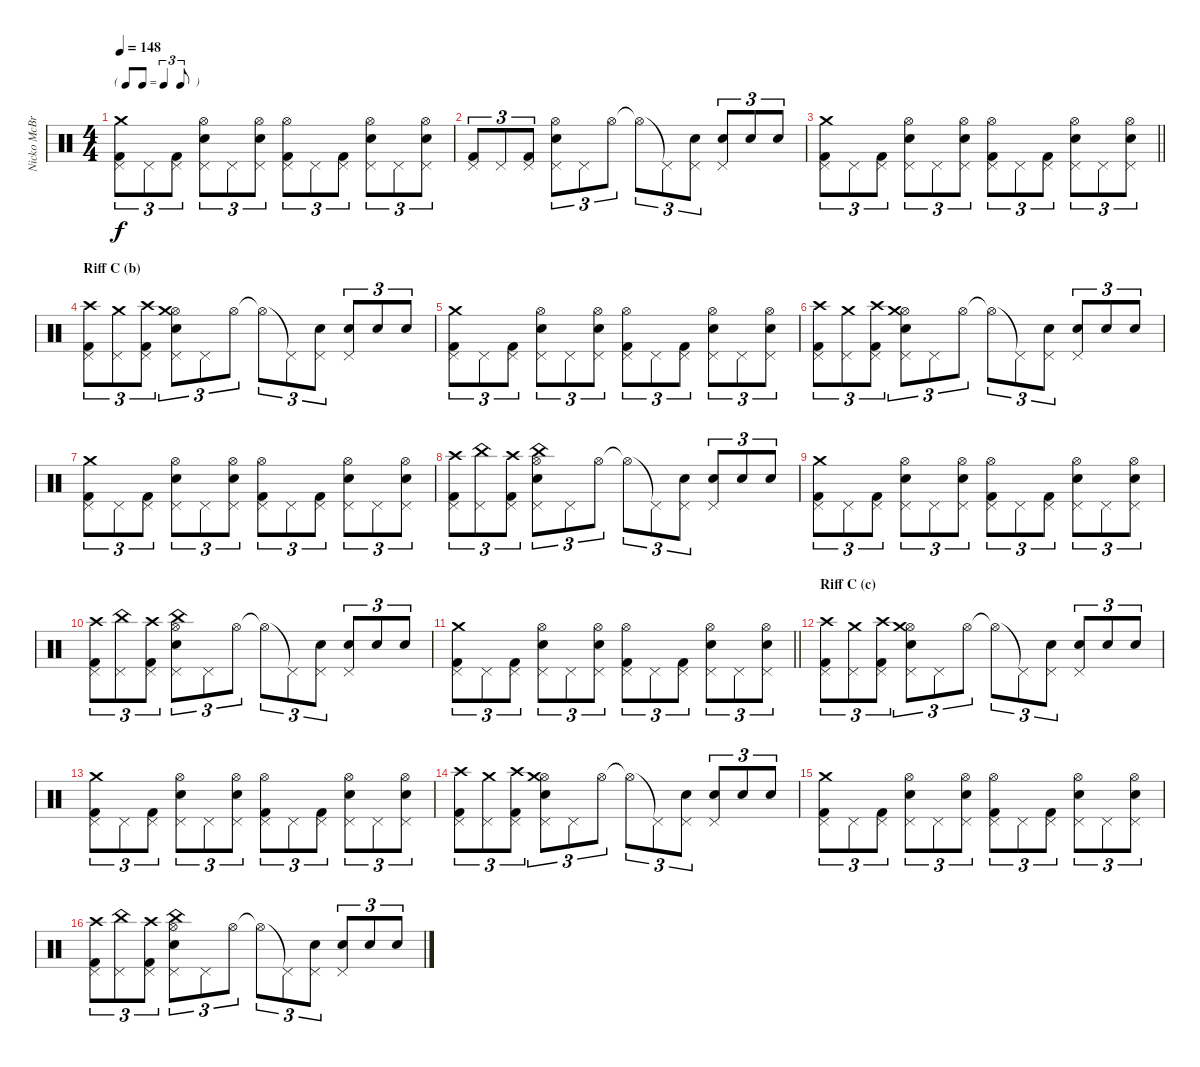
\track ("Nicko McBrain" "Nicko McBr") {instrument percussion}
\staff {score}
\articulation defaults
\ts (4 4)
\tf triplet8th
\tempo 148
\clef neutral
\ks c
("Kick (hit) 2" "Pedal Hi-Hat (hit)" "Crash medium (hit)").8{tu (3 2) dy f} "Pedal Hi-Hat (hit)".8{tu (3 2)} ("Kick (hit) 2" "Pedal Hi-Hat (hit)").8{tu (3 2)} ("Snare (hit) 2" "Pedal Hi-Hat (hit)" "Hi-Hat (open)").8{tu (3 2)} "Pedal Hi-Hat (hit)".8{tu (3 2)} ("Snare (hit) 2" "Pedal Hi-Hat (hit)" "Hi-Hat (open)").8{tu (3 2)} ("Kick (hit) 2" "Pedal Hi-Hat (hit)" "Hi-Hat (open)").8{tu (3 2)} "Pedal Hi-Hat (hit)".8{tu (3 2)} ("Kick (hit) 2" "Pedal Hi-Hat (hit)").8{tu (3 2)} ("Snare (hit) 2" "Pedal Hi-Hat (hit)" "Hi-Hat (open)").8{tu (3 2)} "Pedal Hi-Hat (hit)".8{tu (3 2)} ("Snare (hit) 2" "Pedal Hi-Hat (hit)" "Hi-Hat (open)").8{tu (3 2)} |
("Kick (hit) 2" "Pedal Hi-Hat (hit)").8{tu (3 2)} "Pedal Hi-Hat (hit)".8{tu (3 2)} ("Kick (hit) 2" "Pedal Hi-Hat (hit)").8{tu (3 2)} ("Snare (hit) 2" "Pedal Hi-Hat (hit)" "Hi-Hat (open)").8{tu (3 2)} "Pedal Hi-Hat (hit)".8{tu (3 2)} "Hi-Hat (open)".8{tu (3 2)} "Hi-Hat (open)"{t}.8{tu (3 2)} "Pedal Hi-Hat (hit)"{t}.8{tu (3 2)} ("Snare (hit) 2" "Pedal Hi-Hat (hit)").8{tu (3 2)} ("Snare (hit) 2" "Pedal Hi-Hat (hit)").8{tu (3 2)} "Snare (hit) 2".8{tu (3 2)} "Snare (hit) 2".8{tu (3 2)} |
\barLineRight lightlight
("Kick (hit) 2" "Pedal Hi-Hat (hit)" "Crash medium (hit)").8{tu (3 2)} "Pedal Hi-Hat (hit)".8{tu (3 2)} ("Kick (hit) 2" "Pedal Hi-Hat (hit)").8{tu (3 2)} ("Snare (hit) 2" "Pedal Hi-Hat (hit)" "Hi-Hat (open)").8{tu (3 2)} "Pedal Hi-Hat (hit)".8{tu (3 2)} ("Snare (hit) 2" "Pedal Hi-Hat (hit)" "Hi-Hat (open)").8{tu (3 2)} ("Kick (hit) 2" "Pedal Hi-Hat (hit)" "Hi-Hat (open)").8{tu (3 2)} "Pedal Hi-Hat (hit)".8{tu (3 2)} ("Kick (hit) 2" "Pedal Hi-Hat (hit)").8{tu (3 2)} ("Snare (hit) 2" "Pedal Hi-Hat (hit)" "Hi-Hat (open)").8{tu (3 2)} "Pedal Hi-Hat (hit)".8{tu (3 2)} ("Snare (hit) 2" "Pedal Hi-Hat (hit)" "Hi-Hat (open)").8{tu (3 2)} |
\section ("" "Riff C (b)")
("Kick (hit) 2" "Pedal Hi-Hat (hit)" "Crash high (hit)").8{tu (3 2)} ("Pedal Hi-Hat (hit)" "Crash medium (hit)").8{tu (3 2)} ("Kick (hit) 2" "Pedal Hi-Hat (hit)" "Crash high (hit)").8{tu (3 2)} ("Snare (hit) 2" "Pedal Hi-Hat (hit)" "Hi-Hat (open)" "Crash medium (hit)").8{tu (3 2)} "Pedal Hi-Hat (hit)".8{tu (3 2)} "Hi-Hat (open)".8{tu (3 2)} "Hi-Hat (open)"{t}.8{tu (3 2)} "Pedal Hi-Hat (hit)"{t}.8{tu (3 2)} ("Snare (hit) 2" "Pedal Hi-Hat (hit)").8{tu (3 2)} ("Snare (hit) 2" "Pedal Hi-Hat (hit)").8{tu (3 2)} "Snare (hit) 2".8{tu (3 2)} "Snare (hit) 2".8{tu (3 2)} |
("Kick (hit) 2" "Pedal Hi-Hat (hit)" "Crash medium (hit)").8{tu (3 2)} "Pedal Hi-Hat (hit)".8{tu (3 2)} ("Kick (hit) 2" "Pedal Hi-Hat (hit)").8{tu (3 2)} ("Snare (hit) 2" "Pedal Hi-Hat (hit)" "Hi-Hat (open)").8{tu (3 2)} "Pedal Hi-Hat (hit)".8{tu (3 2)} ("Snare (hit) 2" "Pedal Hi-Hat (hit)" "Hi-Hat (open)").8{tu (3 2)} ("Kick (hit) 2" "Pedal Hi-Hat (hit)" "Hi-Hat (open)").8{tu (3 2)} "Pedal Hi-Hat (hit)".8{tu (3 2)} ("Kick (hit) 2" "Pedal Hi-Hat (hit)").8{tu (3 2)} ("Snare (hit) 2" "Pedal Hi-Hat (hit)" "Hi-Hat (open)").8{tu (3 2)} "Pedal Hi-Hat (hit)".8{tu (3 2)} ("Snare (hit) 2" "Pedal Hi-Hat (hit)" "Hi-Hat (open)").8{tu (3 2)} |
("Kick (hit) 2" "Pedal Hi-Hat (hit)" "Crash high (hit)").8{tu (3 2)} ("Pedal Hi-Hat (hit)" "Crash medium (hit)").8{tu (3 2)} ("Kick (hit) 2" "Pedal Hi-Hat (hit)" "Crash high (hit)").8{tu (3 2)} ("Snare (hit) 2" "Pedal Hi-Hat (hit)" "Hi-Hat (open)" "Crash medium (hit)").8{tu (3 2)} "Pedal Hi-Hat (hit)".8{tu (3 2)} "Hi-Hat (open)".8{tu (3 2)} "Hi-Hat (open)"{t}.8{tu (3 2)} "Pedal Hi-Hat (hit)"{t}.8{tu (3 2)} ("Snare (hit) 2" "Pedal Hi-Hat (hit)").8{tu (3 2)} ("Snare (hit) 2" "Pedal Hi-Hat (hit)").8{tu (3 2)} "Snare (hit) 2".8{tu (3 2)} "Snare (hit) 2".8{tu (3 2)} |
("Kick (hit) 2" "Pedal Hi-Hat (hit)" "Crash medium (hit)").8{tu (3 2)} "Pedal Hi-Hat (hit)".8{tu (3 2)} ("Kick (hit) 2" "Pedal Hi-Hat (hit)").8{tu (3 2)} ("Snare (hit) 2" "Pedal Hi-Hat (hit)" "Hi-Hat (open)").8{tu (3 2)} "Pedal Hi-Hat (hit)".8{tu (3 2)} ("Snare (hit) 2" "Pedal Hi-Hat (hit)" "Hi-Hat (open)").8{tu (3 2)} ("Kick (hit) 2" "Pedal Hi-Hat (hit)" "Hi-Hat (open)").8{tu (3 2)} "Pedal Hi-Hat (hit)".8{tu (3 2)} ("Kick (hit) 2" "Pedal Hi-Hat (hit)").8{tu (3 2)} ("Snare (hit) 2" "Pedal Hi-Hat (hit)" "Hi-Hat (open)").8{tu (3 2)} "Pedal Hi-Hat (hit)".8{tu (3 2)} ("Snare (hit) 2" "Pedal Hi-Hat (hit)" "Hi-Hat (open)").8{tu (3 2)} |
("Kick (hit) 2" "Pedal Hi-Hat (hit)" "Crash high (hit)").8{tu (3 2)} ("Pedal Hi-Hat (hit)" "China (hit)").8{tu (3 2)} ("Kick (hit) 2" "Pedal Hi-Hat (hit)" "Crash high (hit)").8{tu (3 2)} ("Snare (hit) 2" "Pedal Hi-Hat (hit)" "Hi-Hat (open)" "China (hit)").8{tu (3 2)} "Pedal Hi-Hat (hit)".8{tu (3 2)} "Hi-Hat (open)".8{tu (3 2)} "Hi-Hat (open)"{t}.8{tu (3 2)} "Pedal Hi-Hat (hit)"{t}.8{tu (3 2)} ("Snare (hit) 2" "Pedal Hi-Hat (hit)").8{tu (3 2)} ("Snare (hit) 2" "Pedal Hi-Hat (hit)").8{tu (3 2)} "Snare (hit) 2".8{tu (3 2)} "Snare (hit) 2".8{tu (3 2)} |
("Kick (hit) 2" "Pedal Hi-Hat (hit)" "Crash medium (hit)").8{tu (3 2)} "Pedal Hi-Hat (hit)".8{tu (3 2)} ("Kick (hit) 2" "Pedal Hi-Hat (hit)").8{tu (3 2)} ("Snare (hit) 2" "Pedal Hi-Hat (hit)" "Hi-Hat (open)").8{tu (3 2)} "Pedal Hi-Hat (hit)".8{tu (3 2)} ("Snare (hit) 2" "Pedal Hi-Hat (hit)" "Hi-Hat (open)").8{tu (3 2)} ("Kick (hit) 2" "Pedal Hi-Hat (hit)" "Hi-Hat (open)").8{tu (3 2)} "Pedal Hi-Hat (hit)".8{tu (3 2)} ("Kick (hit) 2" "Pedal Hi-Hat (hit)").8{tu (3 2)} ("Snare (hit) 2" "Pedal Hi-Hat (hit)" "Hi-Hat (open)").8{tu (3 2)} "Pedal Hi-Hat (hit)".8{tu (3 2)} ("Snare (hit) 2" "Pedal Hi-Hat (hit)" "Hi-Hat (open)").8{tu (3 2)} |
("Kick (hit) 2" "Pedal Hi-Hat (hit)" "Crash high (hit)").8{tu (3 2)} ("Pedal Hi-Hat (hit)" "China (hit)").8{tu (3 2)} ("Kick (hit) 2" "Pedal Hi-Hat (hit)" "Crash high (hit)").8{tu (3 2)} ("Snare (hit) 2" "Pedal Hi-Hat (hit)" "Hi-Hat (open)" "China (hit)").8{tu (3 2)} "Pedal Hi-Hat (hit)".8{tu (3 2)} "Hi-Hat (open)".8{tu (3 2)} "Hi-Hat (open)"{t}.8{tu (3 2)} "Pedal Hi-Hat (hit)"{t}.8{tu (3 2)} ("Snare (hit) 2" "Pedal Hi-Hat (hit)").8{tu (3 2)} ("Snare (hit) 2" "Pedal Hi-Hat (hit)").8{tu (3 2)} "Snare (hit) 2".8{tu (3 2)} "Snare (hit) 2".8{tu (3 2)} |
\barLineRight lightlight
("Kick (hit) 2" "Pedal Hi-Hat (hit)" "Crash medium (hit)").8{tu (3 2)} "Pedal Hi-Hat (hit)".8{tu (3 2)} ("Kick (hit) 2" "Pedal Hi-Hat (hit)").8{tu (3 2)} ("Snare (hit) 2" "Pedal Hi-Hat (hit)" "Hi-Hat (open)").8{tu (3 2)} "Pedal Hi-Hat (hit)".8{tu (3 2)} ("Snare (hit) 2" "Pedal Hi-Hat (hit)" "Hi-Hat (open)").8{tu (3 2)} ("Kick (hit) 2" "Pedal Hi-Hat (hit)" "Hi-Hat (open)").8{tu (3 2)} "Pedal Hi-Hat (hit)".8{tu (3 2)} ("Kick (hit) 2" "Pedal Hi-Hat (hit)").8{tu (3 2)} ("Snare (hit) 2" "Pedal Hi-Hat (hit)" "Hi-Hat (open)").8{tu (3 2)} "Pedal Hi-Hat (hit)".8{tu (3 2)} ("Snare (hit) 2" "Pedal Hi-Hat (hit)" "Hi-Hat (open)").8{tu (3 2)} |
\section ("" "Riff C (c)")
("Kick (hit) 2" "Pedal Hi-Hat (hit)" "Crash high (hit)").8{tu (3 2)} ("Pedal Hi-Hat (hit)" "Crash medium (hit)").8{tu (3 2)} ("Kick (hit) 2" "Pedal Hi-Hat (hit)" "Crash high (hit)").8{tu (3 2)} ("Snare (hit) 2" "Pedal Hi-Hat (hit)" "Hi-Hat (open)" "Crash medium (hit)").8{tu (3 2)} "Pedal Hi-Hat (hit)".8{tu (3 2)} "Hi-Hat (open)".8{tu (3 2)} "Hi-Hat (open)"{t}.8{tu (3 2)} "Pedal Hi-Hat (hit)"{t}.8{tu (3 2)} ("Snare (hit) 2" "Pedal Hi-Hat (hit)").8{tu (3 2)} ("Snare (hit) 2" "Pedal Hi-Hat (hit)").8{tu (3 2)} "Snare (hit) 2".8{tu (3 2)} "Snare (hit) 2".8{tu (3 2)} |
("Kick (hit) 2" "Pedal Hi-Hat (hit)" "Crash medium (hit)").8{tu (3 2)} "Pedal Hi-Hat (hit)".8{tu (3 2)} ("Kick (hit) 2" "Pedal Hi-Hat (hit)").8{tu (3 2)} ("Snare (hit) 2" "Pedal Hi-Hat (hit)" "Hi-Hat (open)").8{tu (3 2)} "Pedal Hi-Hat (hit)".8{tu (3 2)} ("Snare (hit) 2" "Pedal Hi-Hat (hit)" "Hi-Hat (open)").8{tu (3 2)} ("Kick (hit) 2" "Pedal Hi-Hat (hit)" "Hi-Hat (open)").8{tu (3 2)} "Pedal Hi-Hat (hit)".8{tu (3 2)} ("Kick (hit) 2" "Pedal Hi-Hat (hit)").8{tu (3 2)} ("Snare (hit) 2" "Pedal Hi-Hat (hit)" "Hi-Hat (open)").8{tu (3 2)} "Pedal Hi-Hat (hit)".8{tu (3 2)} ("Snare (hit) 2" "Pedal Hi-Hat (hit)" "Hi-Hat (open)").8{tu (3 2)} |
("Kick (hit) 2" "Pedal Hi-Hat (hit)" "Crash high (hit)").8{tu (3 2)} ("Pedal Hi-Hat (hit)" "Crash medium (hit)").8{tu (3 2)} ("Kick (hit) 2" "Pedal Hi-Hat (hit)" "Crash high (hit)").8{tu (3 2)} ("Snare (hit) 2" "Pedal Hi-Hat (hit)" "Hi-Hat (open)" "Crash medium (hit)").8{tu (3 2)} "Pedal Hi-Hat (hit)".8{tu (3 2)} "Hi-Hat (open)".8{tu (3 2)} "Hi-Hat (open)"{t}.8{tu (3 2)} "Pedal Hi-Hat (hit)"{t}.8{tu (3 2)} ("Snare (hit) 2" "Pedal Hi-Hat (hit)").8{tu (3 2)} ("Snare (hit) 2" "Pedal Hi-Hat (hit)").8{tu (3 2)} "Snare (hit) 2".8{tu (3 2)} "Snare (hit) 2".8{tu (3 2)} |
("Kick (hit) 2" "Pedal Hi-Hat (hit)" "Crash medium (hit)").8{tu (3 2)} "Pedal Hi-Hat (hit)".8{tu (3 2)} ("Kick (hit) 2" "Pedal Hi-Hat (hit)").8{tu (3 2)} ("Snare (hit) 2" "Pedal Hi-Hat (hit)" "Hi-Hat (open)").8{tu (3 2)} "Pedal Hi-Hat (hit)".8{tu (3 2)} ("Snare (hit) 2" "Pedal Hi-Hat (hit)" "Hi-Hat (open)").8{tu (3 2)} ("Kick (hit) 2" "Pedal Hi-Hat (hit)" "Hi-Hat (open)").8{tu (3 2)} "Pedal Hi-Hat (hit)".8{tu (3 2)} ("Kick (hit) 2" "Pedal Hi-Hat (hit)").8{tu (3 2)} ("Snare (hit) 2" "Pedal Hi-Hat (hit)" "Hi-Hat (open)").8{tu (3 2)} "Pedal Hi-Hat (hit)".8{tu (3 2)} ("Snare (hit) 2" "Pedal Hi-Hat (hit)" "Hi-Hat (open)").8{tu (3 2)} |
("Kick (hit) 2" "Pedal Hi-Hat (hit)" "Crash high (hit)").8{tu (3 2)} ("Pedal Hi-Hat (hit)" "China (hit)").8{tu (3 2)} ("Kick (hit) 2" "Pedal Hi-Hat (hit)" "Crash high (hit)").8{tu (3 2)} ("Snare (hit) 2" "Pedal Hi-Hat (hit)" "Hi-Hat (open)" "China (hit)").8{tu (3 2)} "Pedal Hi-Hat (hit)".8{tu (3 2)} "Hi-Hat (open)".8{tu (3 2)} "Hi-Hat (open)"{t}.8{tu (3 2)} "Pedal Hi-Hat (hit)"{t}.8{tu (3 2)} ("Snare (hit) 2" "Pedal Hi-Hat (hit)").8{tu (3 2)} ("Snare (hit) 2" "Pedal Hi-Hat (hit)").8{tu (3 2)} "Snare (hit) 2".8{tu (3 2)} "Snare (hit) 2".8{tu (3 2)}
